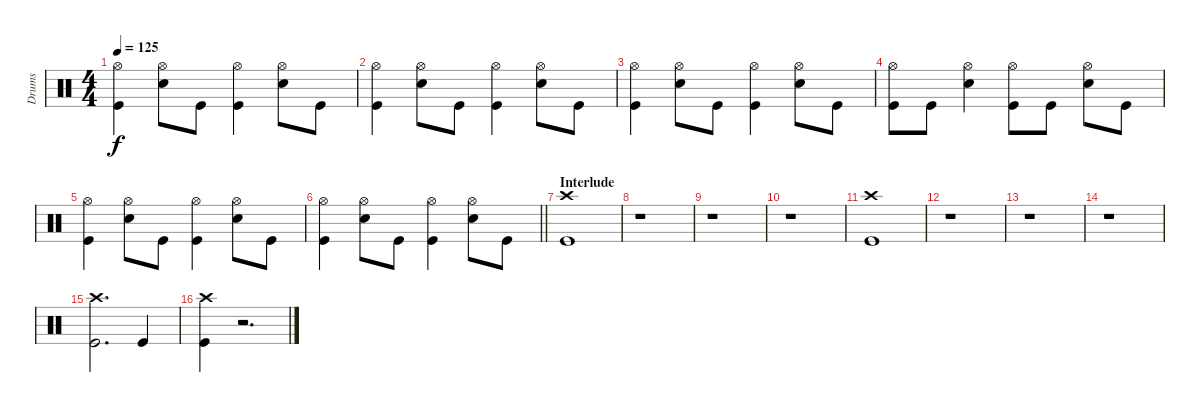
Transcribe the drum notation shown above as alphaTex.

\track ("Drums" "Drums") {instrument percussion}
\staff {score}
\articulation defaults
\ts (4 4)
\tempo 125
\clef neutral
\ks c
("Hi-Hat (open)" "Kick (hit)").4{dy f} ("Hi-Hat (open)" "Electric Snare (hit)").8 "Kick (hit)".8 ("Hi-Hat (open)" "Kick (hit)").4 ("Hi-Hat (open)" "Electric Snare (hit)").8 "Kick (hit)".8 |
("Hi-Hat (open)" "Kick (hit)").4 ("Hi-Hat (open)" "Electric Snare (hit)").8 "Kick (hit)".8 ("Hi-Hat (open)" "Kick (hit)").4 ("Hi-Hat (open)" "Electric Snare (hit)").8 "Kick (hit)".8 |
("Hi-Hat (open)" "Kick (hit)").4 ("Hi-Hat (open)" "Electric Snare (hit)").8 "Kick (hit)".8 ("Hi-Hat (open)" "Kick (hit)").4 ("Hi-Hat (open)" "Electric Snare (hit)").8 "Kick (hit)".8 |
("Hi-Hat (open)" "Kick (hit)").8 "Kick (hit)".8 ("Hi-Hat (open)" "Electric Snare (hit)").4 ("Hi-Hat (open)" "Kick (hit)").8 "Kick (hit)".8 ("Hi-Hat (open)" "Electric Snare (hit)").8 "Kick (hit)".8 |
("Hi-Hat (open)" "Kick (hit)").4 ("Hi-Hat (open)" "Electric Snare (hit)").8 "Kick (hit)".8 ("Hi-Hat (open)" "Kick (hit)").4 ("Hi-Hat (open)" "Electric Snare (hit)").8 "Kick (hit)".8 |
\barLineRight lightlight
("Hi-Hat (open)" "Kick (hit)").4 ("Hi-Hat (open)" "Electric Snare (hit)").8 "Kick (hit)".8 ("Hi-Hat (open)" "Kick (hit)").4 ("Hi-Hat (open)" "Electric Snare (hit)").8 "Kick (hit)".8 |
\section ("" "Interlude")
("Crash high (hit)" "Kick (hit)").1 |
r.1 |
r.1 |
r.1 |
("Crash high (hit)" "Kick (hit)").1 |
r.1 |
r.1 |
r.1 |
("Crash high (hit)" "Kick (hit)").2{d} "Kick (hit)".4 |
("Crash high (hit)" "Kick (hit)").4 r.2{d}
